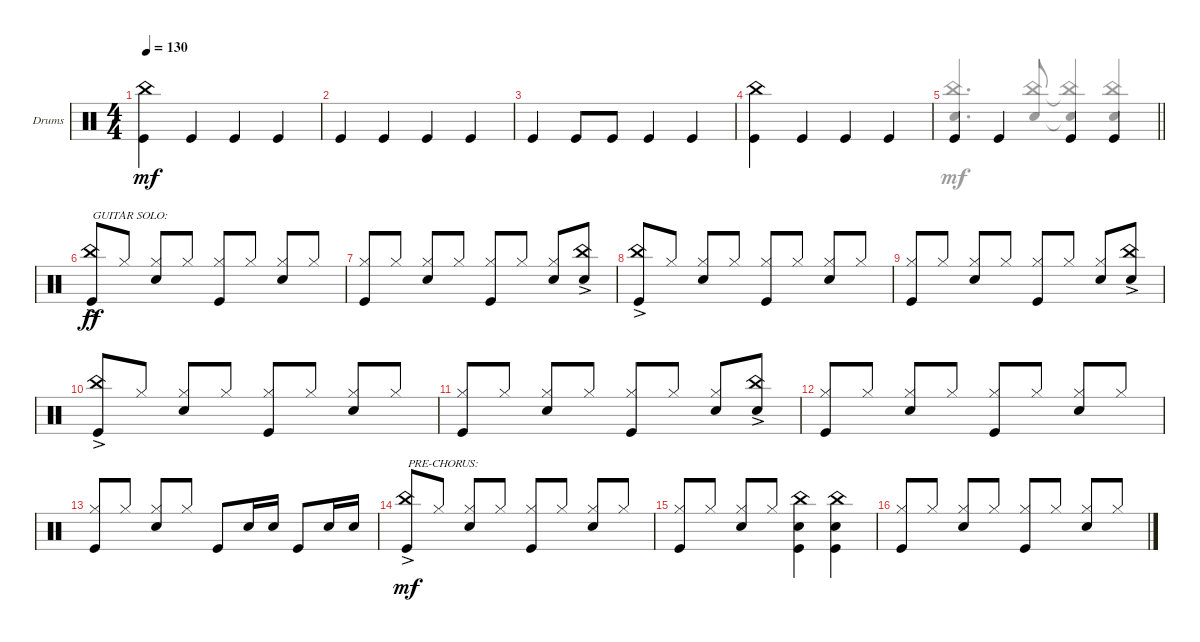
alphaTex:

\defaultSystemsLayout 4
\bracketExtendMode groupsimilarinstruments
\firstSystemTrackNameOrientation horizontal
\otherSystemsTrackNameOrientation horizontal
\track ("Drumkit" "Drums") {instrument percussion}
\staff {score}
\articulation defaults
\voice
\ts (4 4)
\tempo 130
\clef neutral
\scale
0.333333
\ks c
("Kick (hit)" "China (hit)").4{dy mf} "Kick (hit)".4 "Kick (hit)".4 "Kick (hit)".4 |
\scale
0.333333 "Kick (hit)".4 "Kick (hit)".4 "Kick (hit)".4 "Kick (hit)".4 |
\scale
0.333333 "Kick (hit)".4 "Kick (hit)".8 "Kick (hit)".8 "Kick (hit)".4 "Kick (hit)".4 |
\scale
0.333333 ("Kick (hit)" "China (hit)").4 "Kick (hit)".4 "Kick (hit)".4 "Kick (hit)".4 |
\scale
0.333333
\barLineRight lightlight "Kick (hit)".4 "Kick (hit)".4 "Kick (hit)".4 "Kick (hit)".4
|
\scale
0.333333 ("China (hit)"{ac} "Kick (hit)").8{txt "GUITAR SOLO:" dy ff} "Hi-Hat (closed)".8 ("Hi-Hat (closed)" "Snare (hit) 2").8{beam invert} "Hi-Hat (closed)".8 ("Hi-Hat (closed)" "Kick (hit)").8{beam invert} "Hi-Hat (closed)".8 ("Hi-Hat (closed)" "Snare (hit) 2").8{beam invert} "Hi-Hat (closed)".8 |
\scale
0.333333 ("Hi-Hat (closed)" "Kick (hit)").8{beam invert} "Hi-Hat (closed)".8 ("Hi-Hat (closed)" "Snare (hit) 2").8{beam invert} "Hi-Hat (closed)".8 ("Hi-Hat (closed)" "Kick (hit)").8{beam invert} "Hi-Hat (closed)".8 ("Hi-Hat (closed)" "Snare (hit) 2").8{beam invert} ("Snare (hit) 2" "China (hit)"{ac}).8 |
\scale
0.333333 ("China (hit)"{ac} "Kick (hit)").8 "Hi-Hat (closed)".8 ("Hi-Hat (closed)" "Snare (hit) 2").8{beam invert} "Hi-Hat (closed)".8 ("Hi-Hat (closed)" "Kick (hit)").8{beam invert} "Hi-Hat (closed)".8 ("Hi-Hat (closed)" "Snare (hit) 2").8{beam invert} "Hi-Hat (closed)".8 |
\scale
0.333333 ("Hi-Hat (closed)" "Kick (hit)").8{beam invert} "Hi-Hat (closed)".8 ("Hi-Hat (closed)" "Snare (hit) 2").8{beam invert} "Hi-Hat (closed)".8 ("Hi-Hat (closed)" "Kick (hit)").8{beam invert} "Hi-Hat (closed)".8 ("Hi-Hat (closed)" "Snare (hit) 2").8{beam invert} ("Snare (hit) 2" "China (hit)"{ac}).8 |
\scale
0.333333 ("China (hit)"{ac} "Kick (hit)").8 "Hi-Hat (closed)".8 ("Hi-Hat (closed)" "Snare (hit) 2").8{beam invert} "Hi-Hat (closed)".8 ("Hi-Hat (closed)" "Kick (hit)").8{beam invert} "Hi-Hat (closed)".8 ("Hi-Hat (closed)" "Snare (hit) 2").8{beam invert} "Hi-Hat (closed)".8 |
\scale
0.333333 ("Hi-Hat (closed)" "Kick (hit)").8{beam invert} "Hi-Hat (closed)".8 ("Hi-Hat (closed)" "Snare (hit) 2").8{beam invert} "Hi-Hat (closed)".8 ("Hi-Hat (closed)" "Kick (hit)").8{beam invert} "Hi-Hat (closed)".8 ("Hi-Hat (closed)" "Snare (hit) 2").8{beam invert} ("Snare (hit) 2" "China (hit)"{ac}).8 |
\scale
0.333333 ("Hi-Hat (closed)" "Kick (hit)").8{beam invert} "Hi-Hat (closed)".8 ("Hi-Hat (closed)" "Snare (hit) 2").8{beam invert} "Hi-Hat (closed)".8 ("Hi-Hat (closed)" "Kick (hit)").8{beam invert} "Hi-Hat (closed)".8 ("Hi-Hat (closed)" "Snare (hit) 2").8{beam invert} "Hi-Hat (closed)".8 |
\scale
0.333333 ("Hi-Hat (closed)" "Kick (hit)").8{beam invert} "Hi-Hat (closed)".8 ("Hi-Hat (closed)" "Snare (hit) 2").8{beam invert} "Hi-Hat (closed)".8 "Kick (hit)".8 "Snare (hit) 2".16 "Snare (hit) 2".16 "Kick (hit)".8 "Snare (hit) 2".16 "Snare (hit) 2".16 |
\scale
0.333333 ("Kick (hit)" "China (hit)"{ac}).8{txt "PRE-CHORUS:" dy mf} "Hi-Hat (closed)".8 ("Hi-Hat (closed)" "Snare (hit) 2").8{beam invert} "Hi-Hat (closed)".8 ("Hi-Hat (closed)" "Kick (hit)").8{beam invert} "Hi-Hat (closed)".8 ("Hi-Hat (closed)" "Snare (hit) 2").8{beam invert} "Hi-Hat (closed)".8 |
\scale
0.333333 ("Hi-Hat (closed)" "Kick (hit)").8{beam invert} "Hi-Hat (closed)".8 ("Hi-Hat (closed)" "Snare (hit) 2").8{beam invert} "Hi-Hat (closed)".8 ("Snare (hit) 2" "China (hit)" "Kick (hit)").4{beam invert} ("China (hit)" "Snare (hit) 2" "Kick (hit)").4{beam invert} |
\scale
0.333333 ("Hi-Hat (closed)" "Kick (hit)").8{beam invert} "Hi-Hat (closed)".8 ("Hi-Hat (closed)" "Snare (hit) 2").8{beam invert} "Hi-Hat (closed)".8 ("Hi-Hat (closed)" "Kick (hit)").8{beam invert} "Hi-Hat (closed)".8 ("Hi-Hat (closed)" "Snare (hit) 2").8{beam invert} "Hi-Hat (closed)".8
\voice
\clef neutral
\ottava regular
\simile none
\scale
0.333333
\ks c
|
\scale
0.333333 |
\scale
0.333333 |
\scale
0.333333 |
\scale
0.333333
\barLineRight lightlight
("China (hit)" "Snare (hit) 2").4{d beam invert} ("China (hit)" "Snare (hit) 2").8{beam invert} ("China (hit)"{t} "Snare (hit) 2"{t}).4{beam invert} ("China (hit)" "Snare (hit) 2").4{beam invert} |
\scale
0.333333 |
\scale
0.333333 |
\scale
0.333333 |
\scale
0.333333 |
\scale
0.333333 |
\scale
0.333333 |
\scale
0.333333 |
\scale
0.333333 |
\scale
0.333333 |
\scale
0.333333 |
\scale
0.333333
